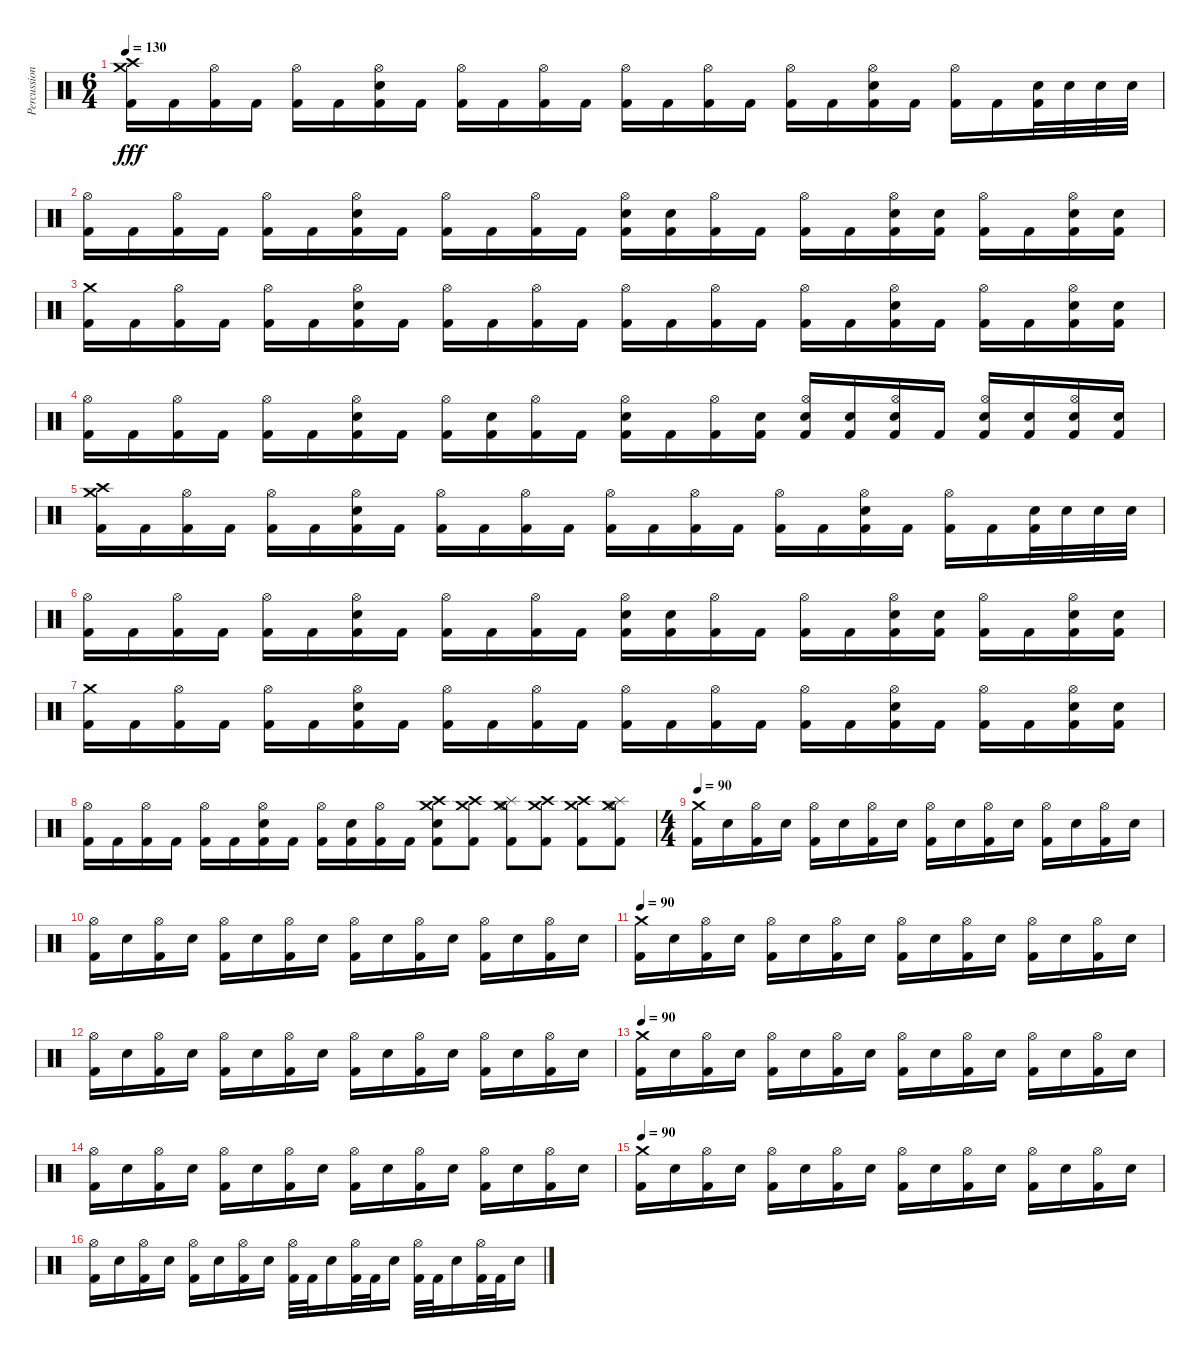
\track ("Percussion" "Percussion") {instrument percussion}
\staff
\articulation defaults
\ts (6 4)
\tempo 130
\clef neutral
\ks c
("Crash high (hit)" "Crash medium (hit)" "Kick (hit) 2").16{dy fff} "Kick (hit) 2".16 ("Hi-Hat (open)" "Kick (hit) 2").16 "Kick (hit) 2".16 ("Hi-Hat (open)" "Kick (hit) 2").16 "Kick (hit) 2".16 ("Hi-Hat (open)" "Snare (hit) 2" "Kick (hit) 2").16 "Kick (hit) 2".16 ("Hi-Hat (open)" "Kick (hit) 2").16 "Kick (hit) 2".16 ("Hi-Hat (open)" "Kick (hit) 2").16 "Kick (hit) 2".16 ("Hi-Hat (open)" "Kick (hit) 2").16 "Kick (hit) 2".16 ("Hi-Hat (open)" "Kick (hit) 2").16 "Kick (hit) 2".16 ("Hi-Hat (open)" "Kick (hit) 2").16 "Kick (hit) 2".16 ("Hi-Hat (open)" "Snare (hit) 2" "Kick (hit) 2").16 "Kick (hit) 2".16 ("Hi-Hat (open)" "Kick (hit) 2").16 "Kick (hit) 2".16 ("Snare (hit) 2" "Kick (hit) 2").32 "Snare (hit) 2".32 "Snare (hit) 2".32 "Snare (hit) 2".32 |
("Hi-Hat (open)" "Kick (hit) 2").16 "Kick (hit) 2".16 ("Hi-Hat (open)" "Kick (hit) 2").16 "Kick (hit) 2".16 ("Hi-Hat (open)" "Kick (hit) 2").16 "Kick (hit) 2".16 ("Hi-Hat (open)" "Snare (hit) 2" "Kick (hit) 2").16 "Kick (hit) 2".16 ("Hi-Hat (open)" "Kick (hit) 2").16 "Kick (hit) 2".16 ("Hi-Hat (open)" "Kick (hit) 2").16 "Kick (hit) 2".16 ("Hi-Hat (open)" "Snare (hit) 2" "Kick (hit) 2").16 ("Snare (hit) 2" "Kick (hit) 2").16 ("Hi-Hat (open)" "Kick (hit) 2").16 "Kick (hit) 2".16 ("Hi-Hat (open)" "Kick (hit) 2").16 "Kick (hit) 2".16 ("Hi-Hat (open)" "Snare (hit) 2" "Kick (hit) 2").16 ("Snare (hit) 2" "Kick (hit) 2").16 ("Hi-Hat (open)" "Kick (hit) 2").16 "Kick (hit) 2".16 ("Hi-Hat (open)" "Snare (hit) 2" "Kick (hit) 2").16 ("Snare (hit) 2" "Kick (hit) 2").16 |
("Crash medium (hit)" "Kick (hit) 2").16 "Kick (hit) 2".16 ("Hi-Hat (open)" "Kick (hit) 2").16 "Kick (hit) 2".16 ("Hi-Hat (open)" "Kick (hit) 2").16 "Kick (hit) 2".16 ("Hi-Hat (open)" "Snare (hit) 2" "Kick (hit) 2").16 "Kick (hit) 2".16 ("Hi-Hat (open)" "Kick (hit) 2").16 "Kick (hit) 2".16 ("Hi-Hat (open)" "Kick (hit) 2").16 "Kick (hit) 2".16 ("Hi-Hat (open)" "Kick (hit) 2").16 "Kick (hit) 2".16 ("Hi-Hat (open)" "Kick (hit) 2").16 "Kick (hit) 2".16 ("Hi-Hat (open)" "Kick (hit) 2").16 "Kick (hit) 2".16 ("Hi-Hat (open)" "Snare (hit) 2" "Kick (hit) 2").16 "Kick (hit) 2".16 ("Hi-Hat (open)" "Kick (hit) 2").16 "Kick (hit) 2".16 ("Hi-Hat (open)" "Snare (hit) 2" "Kick (hit) 2").16 ("Snare (hit) 2" "Kick (hit) 2").16 |
("Hi-Hat (open)" "Kick (hit) 2").16 "Kick (hit) 2".16 ("Hi-Hat (open)" "Kick (hit) 2").16 "Kick (hit) 2".16 ("Hi-Hat (open)" "Kick (hit) 2").16 "Kick (hit) 2".16 ("Hi-Hat (open)" "Snare (hit) 2" "Kick (hit) 2").16 "Kick (hit) 2".16 ("Hi-Hat (open)" "Kick (hit) 2").16 ("Snare (hit) 2" "Kick (hit) 2").16 ("Hi-Hat (open)" "Kick (hit) 2").16 "Kick (hit) 2".16 ("Hi-Hat (open)" "Snare (hit) 2" "Kick (hit) 2").16 "Kick (hit) 2".16 ("Hi-Hat (open)" "Kick (hit) 2").16 ("Snare (hit) 2" "Kick (hit) 2").16 ("Hi-Hat (open)" "Snare (hit) 2" "Kick (hit) 2").16 ("Snare (hit) 2" "Kick (hit) 2").16 ("Hi-Hat (open)" "Snare (hit) 2" "Kick (hit) 2").16 "Kick (hit) 2".16 ("Hi-Hat (open)" "Snare (hit) 2" "Kick (hit) 2").16 ("Snare (hit) 2" "Kick (hit) 2").16 ("Hi-Hat (open)" "Snare (hit) 2" "Kick (hit) 2").16 ("Snare (hit) 2" "Kick (hit) 2").16 |
("Crash high (hit)" "Crash medium (hit)" "Kick (hit) 2").16 "Kick (hit) 2".16 ("Hi-Hat (open)" "Kick (hit) 2").16 "Kick (hit) 2".16 ("Hi-Hat (open)" "Kick (hit) 2").16 "Kick (hit) 2".16 ("Hi-Hat (open)" "Snare (hit) 2" "Kick (hit) 2").16 "Kick (hit) 2".16 ("Hi-Hat (open)" "Kick (hit) 2").16 "Kick (hit) 2".16 ("Hi-Hat (open)" "Kick (hit) 2").16 "Kick (hit) 2".16 ("Hi-Hat (open)" "Kick (hit) 2").16 "Kick (hit) 2".16 ("Hi-Hat (open)" "Kick (hit) 2").16 "Kick (hit) 2".16 ("Hi-Hat (open)" "Kick (hit) 2").16 "Kick (hit) 2".16 ("Hi-Hat (open)" "Snare (hit) 2" "Kick (hit) 2").16 "Kick (hit) 2".16 ("Hi-Hat (open)" "Kick (hit) 2").16 "Kick (hit) 2".16 ("Snare (hit) 2" "Kick (hit) 2").32 "Snare (hit) 2".32 "Snare (hit) 2".32 "Snare (hit) 2".32 |
("Hi-Hat (open)" "Kick (hit) 2").16 "Kick (hit) 2".16 ("Hi-Hat (open)" "Kick (hit) 2").16 "Kick (hit) 2".16 ("Hi-Hat (open)" "Kick (hit) 2").16 "Kick (hit) 2".16 ("Hi-Hat (open)" "Snare (hit) 2" "Kick (hit) 2").16 "Kick (hit) 2".16 ("Hi-Hat (open)" "Kick (hit) 2").16 "Kick (hit) 2".16 ("Hi-Hat (open)" "Kick (hit) 2").16 "Kick (hit) 2".16 ("Hi-Hat (open)" "Snare (hit) 2" "Kick (hit) 2").16 ("Snare (hit) 2" "Kick (hit) 2").16 ("Hi-Hat (open)" "Kick (hit) 2").16 "Kick (hit) 2".16 ("Hi-Hat (open)" "Kick (hit) 2").16 "Kick (hit) 2".16 ("Hi-Hat (open)" "Snare (hit) 2" "Kick (hit) 2").16 ("Snare (hit) 2" "Kick (hit) 2").16 ("Hi-Hat (open)" "Kick (hit) 2").16 "Kick (hit) 2".16 ("Hi-Hat (open)" "Snare (hit) 2" "Kick (hit) 2").16 ("Snare (hit) 2" "Kick (hit) 2").16 |
("Crash medium (hit)" "Kick (hit) 2").16 "Kick (hit) 2".16 ("Hi-Hat (open)" "Kick (hit) 2").16 "Kick (hit) 2".16 ("Hi-Hat (open)" "Kick (hit) 2").16 "Kick (hit) 2".16 ("Hi-Hat (open)" "Snare (hit) 2" "Kick (hit) 2").16 "Kick (hit) 2".16 ("Hi-Hat (open)" "Kick (hit) 2").16 "Kick (hit) 2".16 ("Hi-Hat (open)" "Kick (hit) 2").16 "Kick (hit) 2".16 ("Hi-Hat (open)" "Kick (hit) 2").16 "Kick (hit) 2".16 ("Hi-Hat (open)" "Kick (hit) 2").16 "Kick (hit) 2".16 ("Hi-Hat (open)" "Kick (hit) 2").16 "Kick (hit) 2".16 ("Hi-Hat (open)" "Snare (hit) 2" "Kick (hit) 2").16 "Kick (hit) 2".16 ("Hi-Hat (open)" "Kick (hit) 2").16 "Kick (hit) 2".16 ("Hi-Hat (open)" "Snare (hit) 2" "Kick (hit) 2").16 ("Snare (hit) 2" "Kick (hit) 2").16 |
("Hi-Hat (open)" "Kick (hit) 2").16 "Kick (hit) 2".16 ("Hi-Hat (open)" "Kick (hit) 2").16 "Kick (hit) 2".16 ("Hi-Hat (open)" "Kick (hit) 2").16 "Kick (hit) 2".16 ("Hi-Hat (open)" "Snare (hit) 2" "Kick (hit) 2").16 "Kick (hit) 2".16 ("Hi-Hat (open)" "Kick (hit) 2").16 ("Snare (hit) 2" "Kick (hit) 2").16 ("Hi-Hat (open)" "Kick (hit) 2").16 "Kick (hit) 2".16 ("Crash high (hit)" "Crash medium (hit)" "Snare (hit) 2" "Kick (hit) 2").8 ("Crash high (hit)" "Crash medium (hit)" "Kick (hit) 2").8 ("Splash (hit)" "Hi-Hat (open)" "Crash medium (hit)" "Kick (hit) 2").8 ("Crash high (hit)" "Crash medium (hit)" "Kick (hit) 2").8 ("Crash high (hit)" "Crash medium (hit)" "Kick (hit) 2").8 ("Splash (hit)" "Hi-Hat (open)" "Crash medium (hit)" "Kick (hit) 2").8 |
\ts (4 4)
\tempo 90
("Crash medium (hit)" "Kick (hit) 2").16 "Snare (hit) 2".16 ("Hi-Hat (open)" "Kick (hit) 2").16 "Snare (hit) 2".16 ("Hi-Hat (open)" "Kick (hit) 2").16 "Snare (hit) 2".16 ("Hi-Hat (open)" "Kick (hit) 2").16 "Snare (hit) 2".16 ("Hi-Hat (open)" "Kick (hit) 2").16 "Snare (hit) 2".16 ("Hi-Hat (open)" "Kick (hit) 2").16 "Snare (hit) 2".16 ("Hi-Hat (open)" "Kick (hit) 2").16 "Snare (hit) 2".16 ("Hi-Hat (open)" "Kick (hit) 2").16 "Snare (hit) 2".16 |
("Hi-Hat (open)" "Kick (hit) 2").16 "Snare (hit) 2".16 ("Hi-Hat (open)" "Kick (hit) 2").16 "Snare (hit) 2".16 ("Hi-Hat (open)" "Kick (hit) 2").16 "Snare (hit) 2".16 ("Hi-Hat (open)" "Kick (hit) 2").16 "Snare (hit) 2".16 ("Hi-Hat (open)" "Kick (hit) 2").16 "Snare (hit) 2".16 ("Hi-Hat (open)" "Kick (hit) 2").16 "Snare (hit) 2".16 ("Hi-Hat (open)" "Kick (hit) 2").16 "Snare (hit) 2".16 ("Hi-Hat (open)" "Kick (hit) 2").16 "Snare (hit) 2".16 |
\tempo 90
("Crash medium (hit)" "Kick (hit) 2").16 "Snare (hit) 2".16 ("Hi-Hat (open)" "Kick (hit) 2").16 "Snare (hit) 2".16 ("Hi-Hat (open)" "Kick (hit) 2").16 "Snare (hit) 2".16 ("Hi-Hat (open)" "Kick (hit) 2").16 "Snare (hit) 2".16 ("Hi-Hat (open)" "Kick (hit) 2").16 "Snare (hit) 2".16 ("Hi-Hat (open)" "Kick (hit) 2").16 "Snare (hit) 2".16 ("Hi-Hat (open)" "Kick (hit) 2").16 "Snare (hit) 2".16 ("Hi-Hat (open)" "Kick (hit) 2").16 "Snare (hit) 2".16 |
("Hi-Hat (open)" "Kick (hit) 2").16 "Snare (hit) 2".16 ("Hi-Hat (open)" "Kick (hit) 2").16 "Snare (hit) 2".16 ("Hi-Hat (open)" "Kick (hit) 2").16 "Snare (hit) 2".16 ("Hi-Hat (open)" "Kick (hit) 2").16 "Snare (hit) 2".16 ("Hi-Hat (open)" "Kick (hit) 2").16 "Snare (hit) 2".16 ("Hi-Hat (open)" "Kick (hit) 2").16 "Snare (hit) 2".16 ("Hi-Hat (open)" "Kick (hit) 2").16 "Snare (hit) 2".16 ("Hi-Hat (open)" "Kick (hit) 2").16 "Snare (hit) 2".16 |
\tempo 90
("Crash medium (hit)" "Kick (hit) 2").16 "Snare (hit) 2".16 ("Hi-Hat (open)" "Kick (hit) 2").16 "Snare (hit) 2".16 ("Hi-Hat (open)" "Kick (hit) 2").16 "Snare (hit) 2".16 ("Hi-Hat (open)" "Kick (hit) 2").16 "Snare (hit) 2".16 ("Hi-Hat (open)" "Kick (hit) 2").16 "Snare (hit) 2".16 ("Hi-Hat (open)" "Kick (hit) 2").16 "Snare (hit) 2".16 ("Hi-Hat (open)" "Kick (hit) 2").16 "Snare (hit) 2".16 ("Hi-Hat (open)" "Kick (hit) 2").16 "Snare (hit) 2".16 |
("Hi-Hat (open)" "Kick (hit) 2").16 "Snare (hit) 2".16 ("Hi-Hat (open)" "Kick (hit) 2").16 "Snare (hit) 2".16 ("Hi-Hat (open)" "Kick (hit) 2").16 "Snare (hit) 2".16 ("Hi-Hat (open)" "Kick (hit) 2").16 "Snare (hit) 2".16 ("Hi-Hat (open)" "Kick (hit) 2").16 "Snare (hit) 2".16 ("Hi-Hat (open)" "Kick (hit) 2").16 "Snare (hit) 2".16 ("Hi-Hat (open)" "Kick (hit) 2").16 "Snare (hit) 2".16 ("Hi-Hat (open)" "Kick (hit) 2").16 "Snare (hit) 2".16 |
\tempo 90
("Crash medium (hit)" "Kick (hit) 2").16 "Snare (hit) 2".16 ("Hi-Hat (open)" "Kick (hit) 2").16 "Snare (hit) 2".16 ("Hi-Hat (open)" "Kick (hit) 2").16 "Snare (hit) 2".16 ("Hi-Hat (open)" "Kick (hit) 2").16 "Snare (hit) 2".16 ("Hi-Hat (open)" "Kick (hit) 2").16 "Snare (hit) 2".16 ("Hi-Hat (open)" "Kick (hit) 2").16 "Snare (hit) 2".16 ("Hi-Hat (open)" "Kick (hit) 2").16 "Snare (hit) 2".16 ("Hi-Hat (open)" "Kick (hit) 2").16 "Snare (hit) 2".16 |
("Hi-Hat (open)" "Kick (hit) 2").16 "Snare (hit) 2".16 ("Hi-Hat (open)" "Kick (hit) 2").16 "Snare (hit) 2".16 ("Hi-Hat (open)" "Kick (hit) 2").16 "Snare (hit) 2".16 ("Hi-Hat (open)" "Kick (hit) 2").16 "Snare (hit) 2".16 ("Hi-Hat (open)" "Kick (hit) 2").32 "Kick (hit) 2".32 "Snare (hit) 2".16 ("Hi-Hat (open)" "Kick (hit) 2").32 "Kick (hit) 2".32 "Snare (hit) 2".16 ("Hi-Hat (open)" "Kick (hit) 2").32 "Kick (hit) 2".32 "Snare (hit) 2".16 ("Hi-Hat (open)" "Kick (hit) 2").32 "Kick (hit) 2".32 "Snare (hit) 2".16
